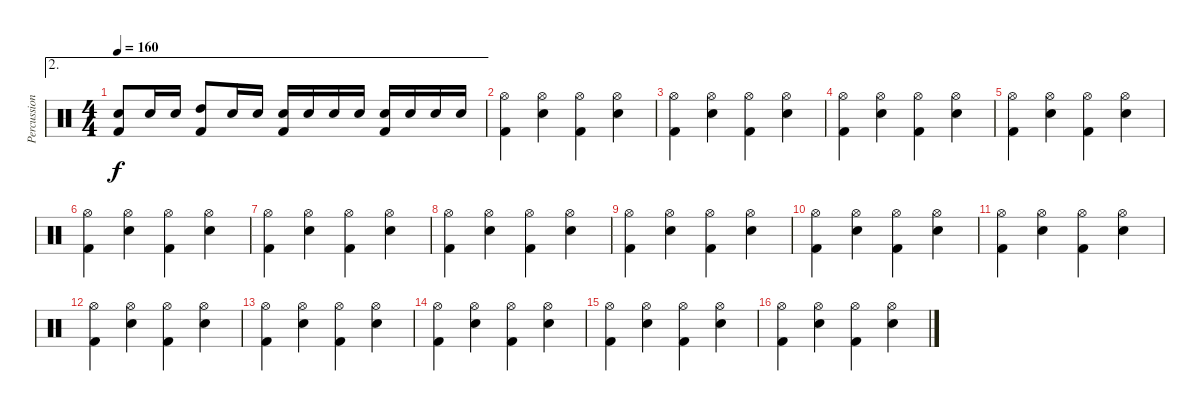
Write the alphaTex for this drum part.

\track ("Percussions" "Percussion") {instrument percussion}
\staff {score}
\articulation defaults
\ae 2
\ts (4 4)
\tempo 160
\clef neutral
\ks c
("Snare (hit) 2" "Kick (hit) 2").8{dy f} "Snare (hit) 2".16 "Snare (hit) 2".16 ("High Tom (hit)" "Kick (hit) 2").8 "Snare (hit) 2".16 "Snare (hit) 2".16 ("Snare (hit) 2" "Kick (hit) 2").16 "Snare (hit) 2".16 "Snare (hit) 2".16 "Snare (hit) 2".16 ("Snare (hit) 2" "Kick (hit) 2").16 "Snare (hit) 2".16 "Snare (hit) 2".16 "Snare (hit) 2".16 |
("Hi-Hat (open)" "Kick (hit) 2").4 ("Hi-Hat (open)" "Snare (hit) 2").4 ("Hi-Hat (open)" "Kick (hit) 2").4 ("Hi-Hat (open)" "Snare (hit) 2").4 |
("Hi-Hat (open)" "Kick (hit) 2").4 ("Hi-Hat (open)" "Snare (hit) 2").4 ("Hi-Hat (open)" "Kick (hit) 2").4 ("Hi-Hat (open)" "Snare (hit) 2").4 |
("Hi-Hat (open)" "Kick (hit) 2").4 ("Hi-Hat (open)" "Snare (hit) 2").4 ("Hi-Hat (open)" "Kick (hit) 2").4 ("Hi-Hat (open)" "Snare (hit) 2").4 |
("Hi-Hat (open)" "Kick (hit) 2").4 ("Hi-Hat (open)" "Snare (hit) 2").4 ("Hi-Hat (open)" "Kick (hit) 2").4 ("Hi-Hat (open)" "Snare (hit) 2").4 |
("Hi-Hat (open)" "Kick (hit) 2").4 ("Hi-Hat (open)" "Snare (hit) 2").4 ("Hi-Hat (open)" "Kick (hit) 2").4 ("Hi-Hat (open)" "Snare (hit) 2").4 |
("Hi-Hat (open)" "Kick (hit) 2").4 ("Hi-Hat (open)" "Snare (hit) 2").4 ("Hi-Hat (open)" "Kick (hit) 2").4 ("Hi-Hat (open)" "Snare (hit) 2").4 |
("Hi-Hat (open)" "Kick (hit) 2").4 ("Hi-Hat (open)" "Snare (hit) 2").4 ("Hi-Hat (open)" "Kick (hit) 2").4 ("Hi-Hat (open)" "Snare (hit) 2").4 |
("Hi-Hat (open)" "Kick (hit) 2").4 ("Hi-Hat (open)" "Snare (hit) 2").4 ("Hi-Hat (open)" "Kick (hit) 2").4 ("Hi-Hat (open)" "Snare (hit) 2").4 |
("Hi-Hat (open)" "Kick (hit) 2").4 ("Hi-Hat (open)" "Snare (hit) 2").4 ("Hi-Hat (open)" "Kick (hit) 2").4 ("Hi-Hat (open)" "Snare (hit) 2").4 |
("Hi-Hat (open)" "Kick (hit) 2").4 ("Hi-Hat (open)" "Snare (hit) 2").4 ("Hi-Hat (open)" "Kick (hit) 2").4 ("Hi-Hat (open)" "Snare (hit) 2").4 |
("Hi-Hat (open)" "Kick (hit) 2").4 ("Hi-Hat (open)" "Snare (hit) 2").4 ("Hi-Hat (open)" "Kick (hit) 2").4 ("Hi-Hat (open)" "Snare (hit) 2").4 |
("Hi-Hat (open)" "Kick (hit) 2").4 ("Hi-Hat (open)" "Snare (hit) 2").4 ("Hi-Hat (open)" "Kick (hit) 2").4 ("Hi-Hat (open)" "Snare (hit) 2").4 |
("Hi-Hat (open)" "Kick (hit) 2").4 ("Hi-Hat (open)" "Snare (hit) 2").4 ("Hi-Hat (open)" "Kick (hit) 2").4 ("Hi-Hat (open)" "Snare (hit) 2").4 |
("Hi-Hat (open)" "Kick (hit) 2").4 ("Hi-Hat (open)" "Snare (hit) 2").4 ("Hi-Hat (open)" "Kick (hit) 2").4 ("Hi-Hat (open)" "Snare (hit) 2").4 |
("Hi-Hat (open)" "Kick (hit) 2").4 ("Hi-Hat (open)" "Snare (hit) 2").4 ("Hi-Hat (open)" "Kick (hit) 2").4 ("Hi-Hat (open)" "Snare (hit) 2").4
